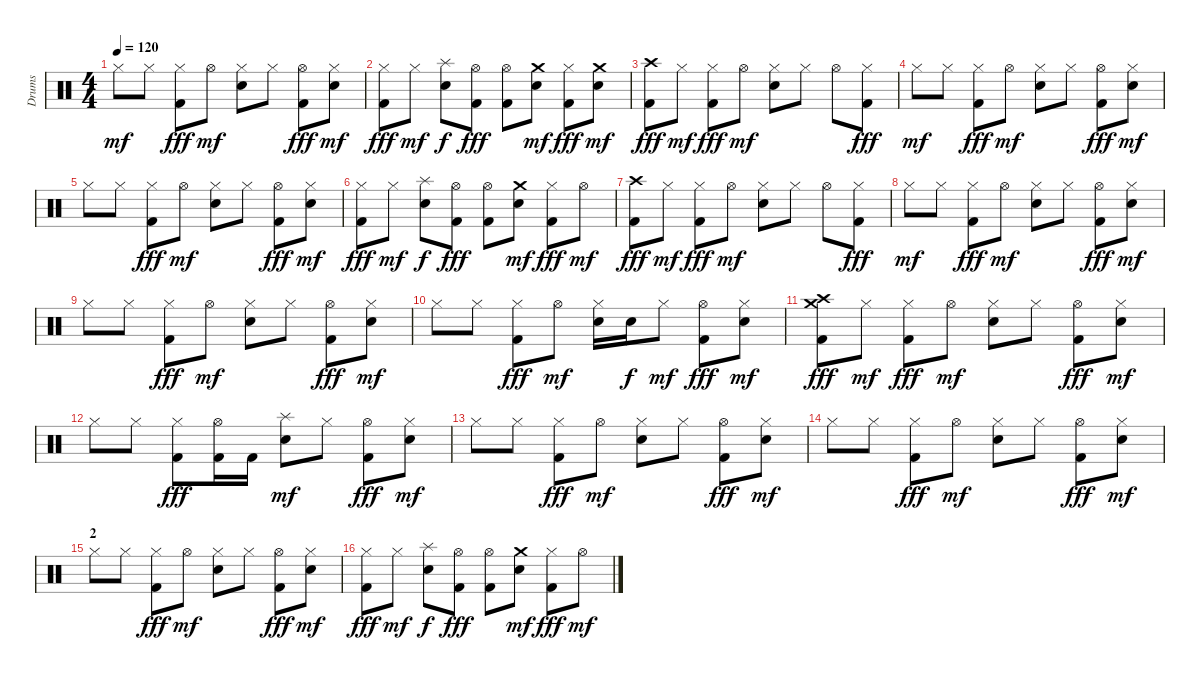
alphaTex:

\track ("Drums" "Drums") {instrument percussion}
\staff {score}
\articulation defaults
\ts (4 4)
\tempo 120
\clef neutral
\ks c "Hi-Hat (closed)".8{dy mf} "Hi-Hat (closed)".8
("Hi-Hat (closed)" "Kick (hit) 2").8{dy fff} "Hi-Hat (open)".8{dy mf} ("Hi-Hat (closed)" "Electric Snare (hit)").8 "Hi-Hat (closed)".8 ("Hi-Hat (open)" "Kick (hit) 2").8{dy fff} ("Hi-Hat (closed)" "Electric Snare (hit)").8{dy mf} |
("Hi-Hat (closed)" "Kick (hit) 2").8{dy fff} "Hi-Hat (closed)".8{dy mf} ("Splash (hit)" "Electric Snare (hit)").8{dy f} ("Hi-Hat (open)" "Kick (hit) 2").8{dy fff} ("Hi-Hat (open)" "Kick (hit) 2").8 ("Crash medium (hit)" "Electric Snare (hit)").8{dy mf} ("Hi-Hat (closed)" "Kick (hit) 2").8{dy fff} ("Crash medium (hit)" "Electric Snare (hit)").8{dy mf} |
("Crash high (hit)" "Kick (hit) 2").8{dy fff} "Hi-Hat (closed)".8{dy mf} ("Hi-Hat (closed)" "Kick (hit) 2").8{dy fff} "Hi-Hat (open)".8{dy mf} ("Hi-Hat (closed)" "Electric Snare (hit)").8 "Hi-Hat (closed)".8 "Hi-Hat (open)".8 ("Hi-Hat (closed)" "Kick (hit) 2").8{dy fff} |
"Hi-Hat (closed)".8{dy mf} "Hi-Hat (closed)".8 ("Hi-Hat (closed)" "Kick (hit) 2").8{dy fff} "Hi-Hat (open)".8{dy mf} ("Hi-Hat (closed)" "Electric Snare (hit)").8 "Hi-Hat (closed)".8 ("Hi-Hat (open)" "Kick (hit) 2").8{dy fff} ("Hi-Hat (closed)" "Electric Snare (hit)").8{dy mf} |
"Hi-Hat (closed)".8 "Hi-Hat (closed)".8 ("Hi-Hat (closed)" "Kick (hit) 2").8{dy fff} "Hi-Hat (open)".8{dy mf} ("Hi-Hat (closed)" "Electric Snare (hit)").8 "Hi-Hat (closed)".8 ("Hi-Hat (open)" "Kick (hit) 2").8{dy fff} ("Hi-Hat (closed)" "Electric Snare (hit)").8{dy mf} |
("Hi-Hat (closed)" "Kick (hit) 2").8{dy fff} "Hi-Hat (closed)".8{dy mf} ("Splash (hit)" "Electric Snare (hit)").8{dy f} ("Hi-Hat (open)" "Kick (hit) 2").8{dy fff} ("Hi-Hat (open)" "Kick (hit) 2").8 ("Crash medium (hit)" "Electric Snare (hit)").8{dy mf} ("Hi-Hat (closed)" "Kick (hit) 2").8{dy fff} "Hi-Hat (open)".8{dy mf} |
("Crash high (hit)" "Kick (hit) 2").8{dy fff} "Hi-Hat (closed)".8{dy mf} ("Hi-Hat (closed)" "Kick (hit) 2").8{dy fff} "Hi-Hat (open)".8{dy mf} ("Hi-Hat (closed)" "Electric Snare (hit)").8 "Hi-Hat (closed)".8 "Hi-Hat (open)".8 ("Hi-Hat (closed)" "Kick (hit) 2").8{dy fff} |
"Hi-Hat (closed)".8{dy mf} "Hi-Hat (closed)".8 ("Hi-Hat (closed)" "Kick (hit) 2").8{dy fff} "Hi-Hat (open)".8{dy mf} ("Hi-Hat (closed)" "Electric Snare (hit)").8 "Hi-Hat (closed)".8 ("Hi-Hat (open)" "Kick (hit) 2").8{dy fff} ("Hi-Hat (closed)" "Electric Snare (hit)").8{dy mf} |
"Hi-Hat (closed)".8 "Hi-Hat (closed)".8 ("Hi-Hat (closed)" "Kick (hit) 2").8{dy fff} "Hi-Hat (open)".8{dy mf} ("Hi-Hat (closed)" "Electric Snare (hit)").8 "Hi-Hat (closed)".8 ("Hi-Hat (open)" "Kick (hit) 2").8{dy fff} ("Hi-Hat (closed)" "Electric Snare (hit)").8{dy mf} |
"Hi-Hat (closed)".8 "Hi-Hat (closed)".8 ("Hi-Hat (closed)" "Kick (hit) 2").8{dy fff} "Hi-Hat (open)".8{dy mf} ("Hi-Hat (closed)" "Electric Snare (hit)").16 "Electric Snare (hit)".16{dy f} "Hi-Hat (closed)".8{dy mf} ("Hi-Hat (open)" "Kick (hit) 2").8{dy fff} ("Hi-Hat (closed)" "Electric Snare (hit)").8{dy mf} |
("Crash medium (hit)" "Crash high (hit)" "Kick (hit) 2").8{dy fff} "Hi-Hat (closed)".8{dy mf} ("Hi-Hat (closed)" "Kick (hit) 2").8{dy fff} "Hi-Hat (open)".8{dy mf} ("Hi-Hat (closed)" "Electric Snare (hit)").8 "Hi-Hat (closed)".8 ("Hi-Hat (open)" "Kick (hit) 2").8{dy fff} ("Hi-Hat (closed)" "Electric Snare (hit)").8{dy mf} |
"Hi-Hat (closed)".8 "Hi-Hat (closed)".8 ("Hi-Hat (closed)" "Kick (hit) 2").8{dy fff} ("Hi-Hat (open)" "Kick (hit) 2").16 "Kick (hit) 2".16 ("Splash (hit)" "Electric Snare (hit)").8{dy mf} "Hi-Hat (closed)".8 ("Hi-Hat (open)" "Kick (hit) 2").8{dy fff} ("Hi-Hat (closed)" "Electric Snare (hit)").8{dy mf} |
"Hi-Hat (closed)".8 "Hi-Hat (closed)".8 ("Hi-Hat (closed)" "Kick (hit) 2").8{dy fff} "Hi-Hat (open)".8{dy mf} ("Hi-Hat (closed)" "Electric Snare (hit)").8 "Hi-Hat (closed)".8 ("Hi-Hat (open)" "Kick (hit) 2").8{dy fff} ("Hi-Hat (closed)" "Electric Snare (hit)").8{dy mf} |
"Hi-Hat (closed)".8 "Hi-Hat (closed)".8 ("Hi-Hat (closed)" "Kick (hit) 2").8{dy fff} "Hi-Hat (open)".8{dy mf} ("Hi-Hat (closed)" "Electric Snare (hit)").8 "Hi-Hat (closed)".8 ("Hi-Hat (open)" "Kick (hit) 2").8{dy fff} ("Hi-Hat (closed)" "Electric Snare (hit)").8{dy mf} |
\section ("" "2")
"Hi-Hat (closed)".8 "Hi-Hat (closed)".8 ("Hi-Hat (closed)" "Kick (hit) 2").8{dy fff} "Hi-Hat (open)".8{dy mf} ("Hi-Hat (closed)" "Electric Snare (hit)").8 "Hi-Hat (closed)".8 ("Hi-Hat (open)" "Kick (hit) 2").8{dy fff} ("Hi-Hat (closed)" "Electric Snare (hit)").8{dy mf} |
("Hi-Hat (closed)" "Kick (hit) 2").8{dy fff} "Hi-Hat (closed)".8{dy mf} ("Splash (hit)" "Electric Snare (hit)").8{dy f} ("Hi-Hat (open)" "Kick (hit) 2").8{dy fff} ("Hi-Hat (open)" "Kick (hit) 2").8 ("Crash medium (hit)" "Electric Snare (hit)").8{dy mf} ("Hi-Hat (closed)" "Kick (hit) 2").8{dy fff} "Hi-Hat (open)".8{dy mf}
